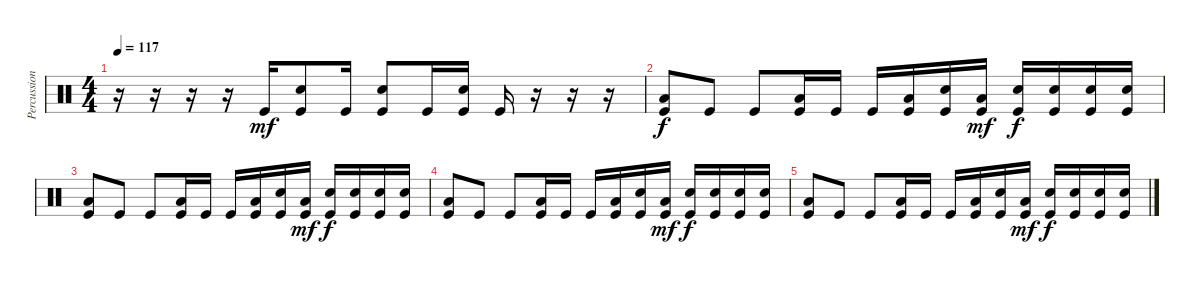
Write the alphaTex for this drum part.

\track ("Percussion" "Percussion") {instrument percussion}
\staff {score}
\articulation defaults
\ts (4 4)
\tempo 117
\clef neutral
\ks c
r.16{dy mf} r.16 r.16 r.16 "Kick (hit)".16 ("Electric Snare (hit)" "Kick (hit)").8 "Kick (hit)".16 ("Electric Snare (hit)" "Kick (hit)").8 "Kick (hit)".16 ("Electric Snare (hit)" "Kick (hit)").16 "Kick (hit)".16 r.16 r.16 r.16 |
("Kick (hit)" "Low Floor Tom (hit)").8{dy f} "Kick (hit)".8 "Kick (hit)".8 ("Kick (hit)" "Low Floor Tom (hit)").16 "Kick (hit)".16 "Kick (hit)".16 ("Kick (hit)" "Low Floor Tom (hit)").16 ("Kick (hit)" "Electric Snare (hit)").16 ("Kick (hit)" "Low Floor Tom (hit)").16{dy mf} ("Kick (hit)" "Electric Snare (hit)").16{dy f} ("Kick (hit)" "Electric Snare (hit)").16 ("Kick (hit)" "Electric Snare (hit)").16 ("Kick (hit)" "Electric Snare (hit)").16 |
("Kick (hit)" "Low Floor Tom (hit)").8 "Kick (hit)".8 "Kick (hit)".8 ("Kick (hit)" "Low Floor Tom (hit)").16 "Kick (hit)".16 "Kick (hit)".16 ("Kick (hit)" "Low Floor Tom (hit)").16 ("Kick (hit)" "Electric Snare (hit)").16 ("Kick (hit)" "Low Floor Tom (hit)").16{dy mf} ("Kick (hit)" "Electric Snare (hit)").16{dy f} ("Kick (hit)" "Electric Snare (hit)").16 ("Kick (hit)" "Electric Snare (hit)").16 ("Kick (hit)" "Electric Snare (hit)").16 |
("Kick (hit)" "Low Floor Tom (hit)").8 "Kick (hit)".8 "Kick (hit)".8 ("Kick (hit)" "Low Floor Tom (hit)").16 "Kick (hit)".16 "Kick (hit)".16 ("Kick (hit)" "Low Floor Tom (hit)").16 ("Kick (hit)" "Electric Snare (hit)").16 ("Kick (hit)" "Low Floor Tom (hit)").16{dy mf} ("Kick (hit)" "Electric Snare (hit)").16{dy f} ("Kick (hit)" "Electric Snare (hit)").16 ("Kick (hit)" "Electric Snare (hit)").16 ("Kick (hit)" "Electric Snare (hit)").16 |
("Kick (hit)" "Low Floor Tom (hit)").8 "Kick (hit)".8 "Kick (hit)".8 ("Kick (hit)" "Low Floor Tom (hit)").16 "Kick (hit)".16 "Kick (hit)".16 ("Kick (hit)" "Low Floor Tom (hit)").16 ("Kick (hit)" "Electric Snare (hit)").16 ("Kick (hit)" "Low Floor Tom (hit)").16{dy mf} ("Kick (hit)" "Electric Snare (hit)").16{dy f} ("Kick (hit)" "Electric Snare (hit)").16 ("Kick (hit)" "Electric Snare (hit)").16 ("Kick (hit)" "Electric Snare (hit)").16
